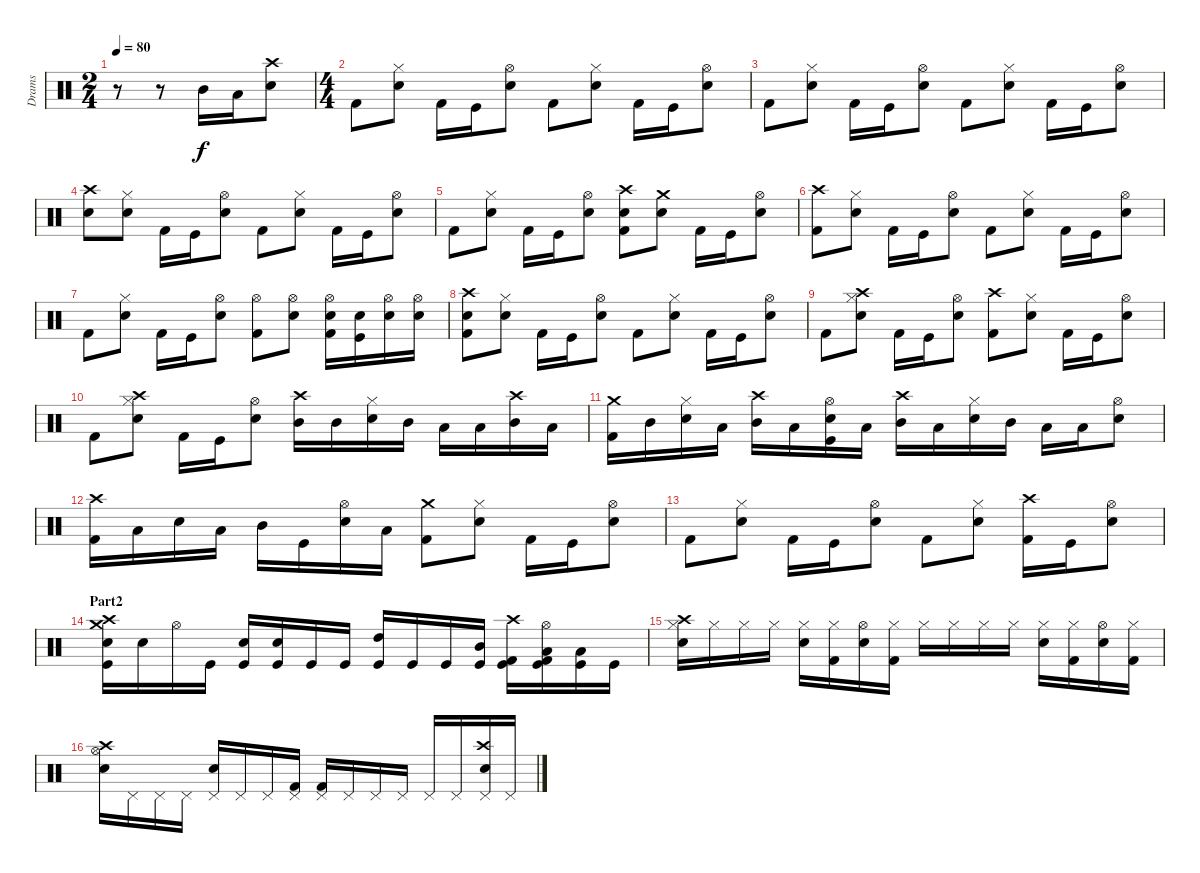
\track ("Drams" "Drams") {instrument percussion}
\staff {score}
\articulation defaults
\ts (2 4)
\tempo 80
\clef neutral
\ks c
r.8{dy f} r.8 "Mid Tom (hit)".16 "Low Tom (hit)".16 ("Snare (hit) 2" "Crash high (hit)").8 |
\ts (4 4)
"Kick (hit) 2".8 ("Hi-Hat (closed)" "Snare (hit) 2").8 "Kick (hit) 2".16 "Kick (hit)".16 ("Hi-Hat (open)" "Snare (hit) 2").8 "Kick (hit) 2".8 ("Hi-Hat (closed)" "Snare (hit) 2").8 "Kick (hit) 2".16 "Kick (hit)".16 ("Hi-Hat (open)" "Snare (hit) 2").8 |
"Kick (hit) 2".8 ("Hi-Hat (closed)" "Snare (hit) 2").8 "Kick (hit) 2".16 "Kick (hit)".16 ("Hi-Hat (open)" "Snare (hit) 2").8 "Kick (hit) 2".8 ("Hi-Hat (closed)" "Snare (hit) 2").8 "Kick (hit) 2".16 "Kick (hit)".16 ("Hi-Hat (open)" "Snare (hit) 2").8 |
("Crash high (hit)" "Snare (hit) 2").8 ("Hi-Hat (closed)" "Snare (hit) 2").8 "Kick (hit) 2".16 "Kick (hit)".16 ("Hi-Hat (open)" "Snare (hit) 2").8 "Kick (hit) 2".8 ("Hi-Hat (closed)" "Snare (hit) 2").8 "Kick (hit) 2".16 "Kick (hit)".16 ("Hi-Hat (open)" "Snare (hit) 2").8 |
"Kick (hit) 2".8 ("Hi-Hat (closed)" "Snare (hit) 2").8 "Kick (hit) 2".16 "Kick (hit)".16 ("Hi-Hat (open)" "Snare (hit) 2").8 ("Crash high (hit)" "Snare (hit) 2" "Kick (hit) 2").8 ("Crash medium (hit)" "Snare (hit) 2").8 "Kick (hit) 2".16 "Kick (hit)".16 ("Hi-Hat (open)" "Snare (hit) 2").8 |
("Crash high (hit)" "Kick (hit) 2").8 ("Hi-Hat (closed)" "Snare (hit) 2").8 "Kick (hit) 2".16 "Kick (hit)".16 ("Hi-Hat (open)" "Snare (hit) 2").8 "Kick (hit) 2".8 ("Hi-Hat (closed)" "Snare (hit) 2").8 "Kick (hit) 2".16 "Kick (hit)".16 ("Hi-Hat (open)" "Snare (hit) 2").8 |
"Kick (hit) 2".8 ("Hi-Hat (closed)" "Snare (hit) 2").8 "Kick (hit) 2".16 "Kick (hit)".16 ("Hi-Hat (open)" "Snare (hit) 2").8 ("Hi-Hat (open)" "Kick (hit) 2").8 ("Hi-Hat (open)" "Snare (hit) 2").8 ("Hi-Hat (open)" "Snare (hit) 2" "Kick (hit) 2").16 ("Snare (hit) 2" "Kick (hit)").16 ("Hi-Hat (open)" "Snare (hit) 2").16 ("Hi-Hat (open)" "Snare (hit) 2").16 |
("Snare (hit) 2" "Crash high (hit)" "Kick (hit) 2").8 ("Hi-Hat (closed)" "Snare (hit) 2").8 "Kick (hit) 2".16 "Kick (hit)".16 ("Hi-Hat (open)" "Snare (hit) 2").8 "Kick (hit) 2".8 ("Hi-Hat (closed)" "Snare (hit) 2").8 "Kick (hit) 2".16 "Kick (hit)".16 ("Hi-Hat (open)" "Snare (hit) 2").8 |
"Kick (hit) 2".8 ("Crash high (hit)" "Hi-Hat (closed)" "Snare (hit) 2").8 "Kick (hit) 2".16 "Kick (hit)".16 ("Hi-Hat (open)" "Snare (hit) 2").8 ("Crash high (hit)" "Kick (hit) 2").8 ("Hi-Hat (closed)" "Snare (hit) 2").8 "Kick (hit) 2".16 "Kick (hit)".16 ("Hi-Hat (open)" "Snare (hit) 2").8 |
"Kick (hit) 2".8 ("Crash high (hit)" "Hi-Hat (closed)" "Snare (hit) 2").8 "Kick (hit) 2".16 "Kick (hit)".16 ("Hi-Hat (open)" "Snare (hit) 2").8 ("Crash high (hit)" "Mid Tom (hit)").16 "Mid Tom (hit)".16 ("Hi-Hat (closed)" "Snare (hit) 2").16 "Mid Tom (hit)".16 "Low Tom (hit)".16 "Low Tom (hit)".16 ("Crash high (hit)" "Mid Tom (hit)").16 "Low Tom (hit)".16 |
("Crash medium (hit)" "Kick (hit) 2").16 "Mid Tom (hit)".16 ("Hi-Hat (closed)" "Snare (hit) 2").16 "Low Tom (hit)".16 ("Crash high (hit)" "Mid Tom (hit)").16 "Low Tom (hit)".16 ("Hi-Hat (open)" "Kick (hit)" "Snare (hit) 2").16 "Low Tom (hit)".16 ("Crash high (hit)" "Mid Tom (hit)").16 "Low Tom (hit)".16 ("Hi-Hat (closed)" "Snare (hit) 2").16 "Mid Tom (hit)".16 "Low Tom (hit)".16 "Low Tom (hit)".16 ("Hi-Hat (open)" "Snare (hit) 2").8 |
("Crash high (hit)" "Kick (hit) 2").16 "Low Tom (hit)".16 "Snare (hit) 2".16 "Low Tom (hit)".16 "Mid Tom (hit)".16 "Kick (hit)".16 ("Hi-Hat (open)" "Snare (hit) 2").16 "Low Tom (hit)".16 ("Crash medium (hit)" "Kick (hit) 2").8 ("Hi-Hat (closed)" "Snare (hit) 2").8 "Kick (hit) 2".16 "Kick (hit)".16 ("Hi-Hat (open)" "Snare (hit) 2").8 |
"Kick (hit) 2".8 ("Hi-Hat (closed)" "Snare (hit) 2").8 "Kick (hit) 2".16 "Kick (hit)".16 ("Hi-Hat (open)" "Snare (hit) 2").8 "Kick (hit) 2".8 ("Hi-Hat (closed)" "Snare (hit) 2").8 ("Crash high (hit)" "Kick (hit) 2").16 "Kick (hit)".16 ("Hi-Hat (open)" "Snare (hit) 2").8 |
\section ("" "Part2")
("Crash high (hit)" "Crash medium (hit)" "Kick (hit)" "Snare (hit) 2").16 "Snare (hit) 2".16 "Hi-Hat (open)".16 "Kick (hit)".16 ("Snare (hit) 2" "Kick (hit)").16 ("Snare (hit) 2" "Kick (hit)").16 "Kick (hit)".16 "Kick (hit)".16 ("High Tom (hit)" "Kick (hit)").16 "Kick (hit)".16 "Kick (hit)".16 ("Mid Tom (hit)" "Kick (hit)").16 ("Kick (hit) 2" "Kick (hit)" "Crash high (hit)").16 ("Low Tom (hit)" "Kick (hit) 2" "Kick (hit)" "Hi-Hat (open)").16 ("Low Tom (hit)" "Kick (hit)").16 "Kick (hit)".16 |
("Crash high (hit)" "Snare (hit) 2" "Hi-Hat (closed)").16 "Hi-Hat (closed)".16 "Hi-Hat (closed)".16 "Hi-Hat (closed)".16 ("Snare (hit) 2" "Hi-Hat (closed)").16 ("Hi-Hat (closed)" "Kick (hit) 2").16 ("Snare (hit) 2" "Hi-Hat (open)").16 ("Hi-Hat (closed)" "Kick (hit) 2").16 "Hi-Hat (closed)".16 "Hi-Hat (closed)".16 "Hi-Hat (closed)".16 "Hi-Hat (closed)".16 ("Snare (hit) 2" "Hi-Hat (closed)").16 ("Hi-Hat (closed)" "Kick (hit) 2").16 ("Snare (hit) 2" "Hi-Hat (open)").16 ("Hi-Hat (closed)" "Kick (hit) 2").16 |
("Hi-Hat (open)" "Crash high (hit)" "Snare (hit) 2").16 "Pedal Hi-Hat (hit)".16 "Pedal Hi-Hat (hit)".16 "Pedal Hi-Hat (hit)".16 ("Pedal Hi-Hat (hit)" "Snare (hit) 2").16 "Pedal Hi-Hat (hit)".16 "Pedal Hi-Hat (hit)".16 ("Pedal Hi-Hat (hit)" "Kick (hit) 2").16 ("Pedal Hi-Hat (hit)" "Kick (hit) 2").16 "Pedal Hi-Hat (hit)".16 "Pedal Hi-Hat (hit)".16 "Pedal Hi-Hat (hit)".16 "Pedal Hi-Hat (hit)".16 "Pedal Hi-Hat (hit)".16 ("Pedal Hi-Hat (hit)" "Crash high (hit)" "Snare (hit) 2").16 "Pedal Hi-Hat (hit)".16
